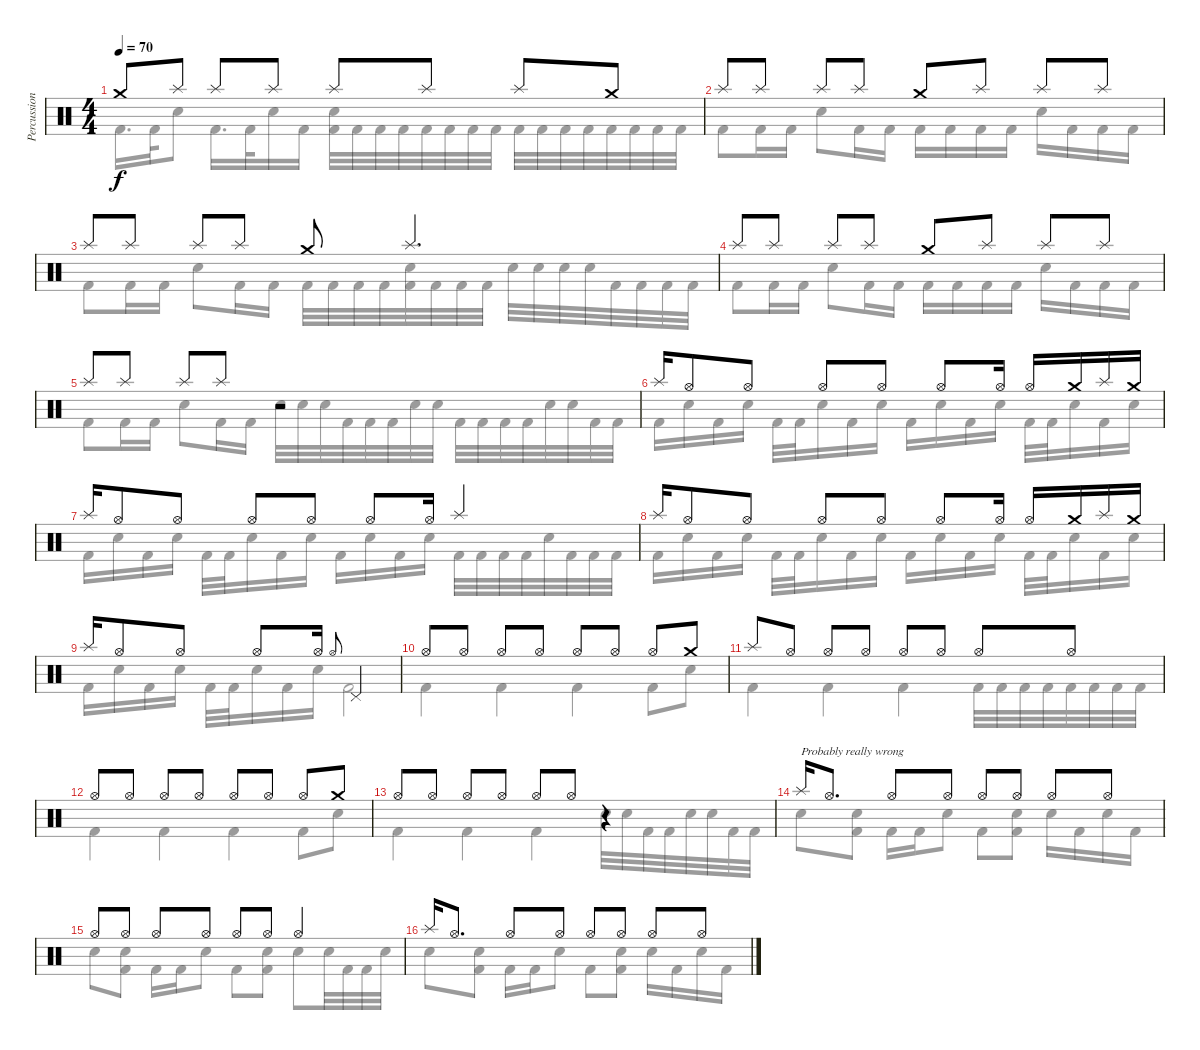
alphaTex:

\track ("Percussion" "Percussion") {instrument percussion}
\staff {score}
\articulation defaults
\voice
\ts (4 4)
\tempo 70
\clef neutral
\ks c "Crash medium (hit)".8{dy f} "Splash (hit)".8 "Splash (hit)".8 "Splash (hit)".8 "Splash (hit)".8 "Splash (hit)".8 "Splash (hit)".8 "Crash medium (hit)".8
|
"Splash (hit)".8 "Splash (hit)".8 "Splash (hit)".8 "Splash (hit)".8 "Crash medium (hit)".8 "Splash (hit)".8 "Splash (hit)".8 "Splash (hit)".8 |
"Splash (hit)".8 "Splash (hit)".8 "Splash (hit)".8 "Splash (hit)".8 "Crash medium (hit)".8 "Splash (hit)".4{d} |
"Splash (hit)".8 "Splash (hit)".8 "Splash (hit)".8 "Splash (hit)".8 "Crash medium (hit)".8 "Splash (hit)".8 "Splash (hit)".8 "Splash (hit)".8 |
"Splash (hit)".8 "Splash (hit)".8 "Splash (hit)".8 "Splash (hit)".8 r.2 |
"Splash (hit)".16 "Hi-Hat (open)".8 "Hi-Hat (open)".8 "Hi-Hat (open)".8 "Hi-Hat (open)".8 "Hi-Hat (open)".8 "Hi-Hat (open)".16 "Hi-Hat (open)".16 "Crash medium (hit)".16 "Splash (hit)".16 "Crash medium (hit)".16 |
"Splash (hit)".16 "Hi-Hat (open)".8 "Hi-Hat (open)".8 "Hi-Hat (open)".8 "Hi-Hat (open)".8 "Hi-Hat (open)".8 "Hi-Hat (open)".16 "Splash (hit)".4 |
"Splash (hit)".16 "Hi-Hat (open)".8 "Hi-Hat (open)".8 "Hi-Hat (open)".8 "Hi-Hat (open)".8 "Hi-Hat (open)".8 "Hi-Hat (open)".16 "Hi-Hat (open)".16 "Crash medium (hit)".16 "Splash (hit)".16 "Crash medium (hit)".16 |
"Splash (hit)".16 "Hi-Hat (open)".8 "Hi-Hat (open)".8 "Hi-Hat (open)".8 "Hi-Hat (open)".16 "Hi-Hat (open)".8{gr onbeat} "Pedal Hi-Hat (hit)".2 |
"Hi-Hat (open)".8 "Hi-Hat (open)".8 "Hi-Hat (open)".8 "Hi-Hat (open)".8 "Hi-Hat (open)".8 "Hi-Hat (open)".8 "Hi-Hat (open)".8 "Crash medium (hit)".8 |
"Splash (hit)".8 "Hi-Hat (open)".8 "Hi-Hat (open)".8 "Hi-Hat (open)".8 "Hi-Hat (open)".8 "Hi-Hat (open)".8 "Hi-Hat (open)".8 "Hi-Hat (open)".8 |
"Hi-Hat (open)".8 "Hi-Hat (open)".8 "Hi-Hat (open)".8 "Hi-Hat (open)".8 "Hi-Hat (open)".8 "Hi-Hat (open)".8 "Hi-Hat (open)".8 "Crash medium (hit)".8 |
"Hi-Hat (open)".8 "Hi-Hat (open)".8 "Hi-Hat (open)".8 "Hi-Hat (open)".8 "Hi-Hat (open)".8 "Hi-Hat (open)".8 r.4 |
"Splash (hit)".16{txt "Probably really wrong"} "Hi-Hat (open)".8{d} "Hi-Hat (open)".8 "Hi-Hat (open)".8 "Hi-Hat (open)".8 "Hi-Hat (open)".8 "Hi-Hat (open)".8 "Hi-Hat (open)".8 |
"Hi-Hat (open)".8 "Hi-Hat (open)".8 "Hi-Hat (open)".8 "Hi-Hat (open)".8 "Hi-Hat (open)".8 "Hi-Hat (open)".8 "Hi-Hat (open)".4 |
"Splash (hit)".16 "Hi-Hat (open)".8{d} "Hi-Hat (open)".8 "Hi-Hat (open)".8 "Hi-Hat (open)".8 "Hi-Hat (open)".8 "Hi-Hat (open)".8 "Hi-Hat (open)".8
\voice
\clef neutral
\ottava regular
\simile none
\ks c "Kick (hit) 2".16{d dy f} "Kick (hit) 2".32 "Snare (hit) 2".8 "Kick (hit) 2".16{d} "Kick (hit) 2".32 "Snare (hit) 2".16 "Kick (hit) 2".16
("Snare (hit) 2" "Kick (hit) 2").32 "Kick (hit) 2".32 "Kick (hit) 2".32 "Kick (hit) 2".32 "Kick (hit) 2".32 "Kick (hit) 2".32 "Kick (hit) 2".32 "Kick (hit) 2".32 "Kick (hit) 2".32 "Kick (hit) 2".32 "Kick (hit) 2".32 "Kick (hit) 2".32 "Kick (hit) 2".32 "Kick (hit) 2".32 "Kick (hit) 2".32 "Kick (hit) 2".32 |
"Kick (hit) 2".8 "Kick (hit) 2".16 "Kick (hit) 2".16 "Snare (hit) 2".8 "Kick (hit) 2".16 "Kick (hit) 2".16 "Kick (hit) 2".16 "Kick (hit) 2".16 "Kick (hit) 2".16 "Kick (hit) 2".16 "Snare (hit) 2".16 "Kick (hit) 2".16 "Kick (hit) 2".16 "Kick (hit) 2".16 |
"Kick (hit) 2".8 "Kick (hit) 2".16 "Kick (hit) 2".16 "Snare (hit) 2".8 "Kick (hit) 2".16 "Kick (hit) 2".16 "Kick (hit) 2".32 "Kick (hit) 2".32 "Kick (hit) 2".32 "Kick (hit) 2".32 ("Snare (hit) 2" "Kick (hit) 2").32 "Kick (hit) 2".32 "Kick (hit) 2".32 "Kick (hit) 2".32 "Snare (hit) 2".32 "Snare (hit) 2".32 "Snare (hit) 2".32 "Snare (hit) 2".32 "Kick (hit) 2".32 "Kick (hit) 2".32 "Kick (hit) 2".32 "Kick (hit) 2".32 |
"Kick (hit) 2".8 "Kick (hit) 2".16 "Kick (hit) 2".16 "Snare (hit) 2".8 "Kick (hit) 2".16 "Kick (hit) 2".16 "Kick (hit) 2".16 "Kick (hit) 2".16 "Kick (hit) 2".16 "Kick (hit) 2".16 "Snare (hit) 2".16 "Kick (hit) 2".16 "Kick (hit) 2".16 "Kick (hit) 2".16 |
"Kick (hit) 2".8 "Kick (hit) 2".16 "Kick (hit) 2".16 "Snare (hit) 2".8 "Kick (hit) 2".16 "Kick (hit) 2".16 "Snare (hit) 2".32 "Snare (hit) 2".32 "Snare (hit) 2".32 "Kick (hit) 2".32 "Kick (hit) 2".32 "Kick (hit) 2".32 "Snare (hit) 2".32 "Snare (hit) 2".32 "Kick (hit) 2".32 "Kick (hit) 2".32 "Kick (hit) 2".32 "Kick (hit) 2".32 "Snare (hit) 2".32 "Snare (hit) 2".32 "Kick (hit) 2".32 "Kick (hit) 2".32 |
"Kick (hit) 2".16 "Snare (hit) 2".16 "Kick (hit) 2".16 "Snare (hit) 2".16 "Kick (hit) 2".32 "Kick (hit) 2".32 "Snare (hit) 2".16 "Kick (hit) 2".16 "Snare (hit) 2".16 "Kick (hit) 2".16 "Snare (hit) 2".16 "Kick (hit) 2".16 "Snare (hit) 2".16 "Kick (hit) 2".32 "Kick (hit) 2".32 "Snare (hit) 2".16 "Kick (hit) 2".16 "Snare (hit) 2".16 |
"Kick (hit) 2".16 "Snare (hit) 2".16 "Kick (hit) 2".16 "Snare (hit) 2".16 "Kick (hit) 2".32 "Kick (hit) 2".32 "Snare (hit) 2".16 "Kick (hit) 2".16 "Snare (hit) 2".16 "Kick (hit) 2".16 "Snare (hit) 2".16 "Kick (hit) 2".16 "Snare (hit) 2".16 "Kick (hit) 2".32 "Kick (hit) 2".32 "Kick (hit) 2".32 "Kick (hit) 2".32 "Snare (hit) 2".32 "Kick (hit) 2".32 "Kick (hit) 2".32 "Kick (hit) 2".32 |
"Kick (hit) 2".16 "Snare (hit) 2".16 "Kick (hit) 2".16 "Snare (hit) 2".16 "Kick (hit) 2".32 "Kick (hit) 2".32 "Snare (hit) 2".16 "Kick (hit) 2".16 "Snare (hit) 2".16 "Kick (hit) 2".16 "Snare (hit) 2".16 "Kick (hit) 2".16 "Snare (hit) 2".16 "Kick (hit) 2".32 "Kick (hit) 2".32 "Snare (hit) 2".16 "Kick (hit) 2".16 "Snare (hit) 2".16 |
"Kick (hit) 2".16 "Snare (hit) 2".16 "Kick (hit) 2".16 "Snare (hit) 2".16 "Kick (hit) 2".32 "Kick (hit) 2".32 "Snare (hit) 2".16 "Kick (hit) 2".16 "Snare (hit) 2".16 "Kick (hit) 2".2 |
"Kick (hit) 2".4 "Kick (hit) 2".4 "Kick (hit) 2".4 "Kick (hit) 2".8 "Snare (hit) 2".8 |
"Kick (hit) 2".4 "Kick (hit) 2".4 "Kick (hit) 2".4 "Kick (hit) 2".32 "Kick (hit) 2".32 "Kick (hit) 2".32 "Kick (hit) 2".32 "Kick (hit) 2".32 "Kick (hit) 2".32 "Kick (hit) 2".32 "Kick (hit) 2".32 |
"Kick (hit) 2".4 "Kick (hit) 2".4 "Kick (hit) 2".4 "Kick (hit) 2".8 "Snare (hit) 2".8 |
"Kick (hit) 2".4 "Kick (hit) 2".4 "Kick (hit) 2".4 "Snare (hit) 2".32 "Snare (hit) 2".32 "Kick (hit) 2".32 "Kick (hit) 2".32 "Snare (hit) 2".32 "Snare (hit) 2".32 "Kick (hit) 2".32 "Kick (hit) 2".32 |
"Snare (hit) 2".8 ("Snare (hit) 2" "Kick (hit) 2").8 "Kick (hit) 2".16 "Kick (hit) 2".16 "Snare (hit) 2".8 "Kick (hit) 2".8 ("Snare (hit) 2" "Kick (hit) 2").8 "Snare (hit) 2".16 "Kick (hit) 2".16 "Snare (hit) 2".16 "Kick (hit) 2".16 |
"Snare (hit) 2".8 ("Snare (hit) 2" "Kick (hit) 2").8 "Kick (hit) 2".16 "Kick (hit) 2".16 "Snare (hit) 2".8 "Kick (hit) 2".8 ("Snare (hit) 2" "Kick (hit) 2").8 "Snare (hit) 2".8 "Snare (hit) 2".32 "Kick (hit) 2".32 "Kick (hit) 2".32 "Snare (hit) 2".32 |
"Snare (hit) 2".8 ("Snare (hit) 2" "Kick (hit) 2").8 "Kick (hit) 2".16 "Kick (hit) 2".16 "Snare (hit) 2".8 "Kick (hit) 2".8 ("Snare (hit) 2" "Kick (hit) 2").8 "Snare (hit) 2".16 "Kick (hit) 2".16 "Snare (hit) 2".16 "Kick (hit) 2".16
